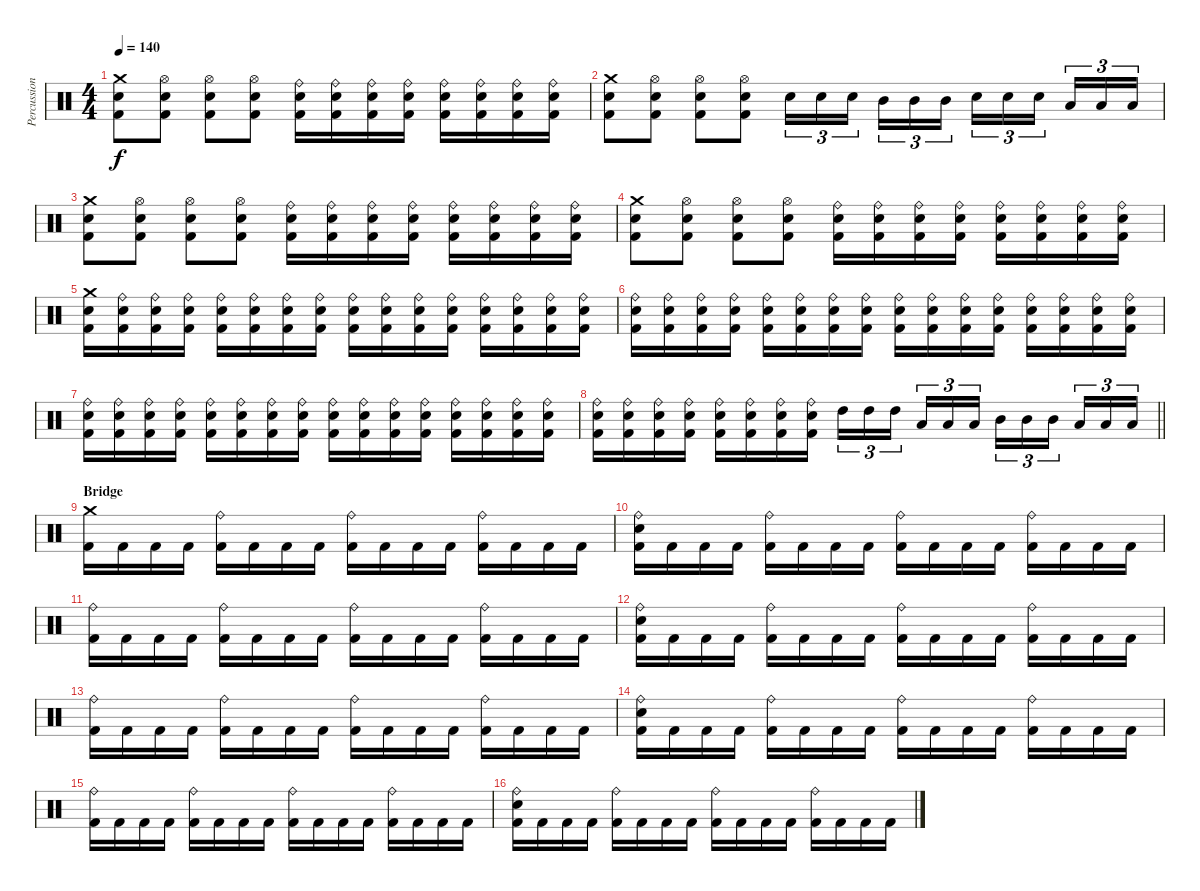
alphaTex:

\track ("Percussion" "Percussion") {instrument percussion}
\staff {score}
\articulation defaults
\ts (4 4)
\tempo 140
\clef neutral
\ks c
("Crash medium (hit)" "Electric Snare (hit)" "Kick (hit) 2").8{dy f} ("Hi-Hat (open)" "Electric Snare (hit)" "Kick (hit) 2").8 ("Hi-Hat (open)" "Electric Snare (hit)" "Kick (hit) 2").8 ("Hi-Hat (open)" "Electric Snare (hit)" "Kick (hit) 2").8 ("Ride (bell)" "Electric Snare (hit)" "Kick (hit) 2").16 ("Ride (bell)" "Electric Snare (hit)" "Kick (hit) 2").16 ("Ride (bell)" "Electric Snare (hit)" "Kick (hit) 2").16 ("Ride (bell)" "Electric Snare (hit)" "Kick (hit) 2").16 ("Ride (bell)" "Electric Snare (hit)" "Kick (hit) 2").16 ("Ride (bell)" "Electric Snare (hit)" "Kick (hit) 2").16 ("Ride (bell)" "Electric Snare (hit)" "Kick (hit) 2").16 ("Ride (bell)" "Electric Snare (hit)" "Kick (hit) 2").16 |
("Crash medium (hit)" "Electric Snare (hit)" "Kick (hit) 2").8 ("Hi-Hat (open)" "Electric Snare (hit)" "Kick (hit) 2").8 ("Hi-Hat (open)" "Electric Snare (hit)" "Kick (hit) 2").8 ("Hi-Hat (open)" "Electric Snare (hit)" "Kick (hit) 2").8 "Electric Snare (hit)".16{tu (3 2)} "Electric Snare (hit)".16{tu (3 2)} "Electric Snare (hit)".16{tu (3 2) beam splitsecondary} "Mid Tom (hit)".16{tu (3 2)} "Mid Tom (hit)".16{tu (3 2)} "Mid Tom (hit)".16{tu (3 2)} "Electric Snare (hit)".16{tu (3 2)} "Electric Snare (hit)".16{tu (3 2)} "Electric Snare (hit)".16{tu (3 2) beam splitsecondary} "Low Tom (hit)".16{tu (3 2)} "Low Tom (hit)".16{tu (3 2)} "Low Tom (hit)".16{tu (3 2)} |
("Crash medium (hit)" "Electric Snare (hit)" "Kick (hit) 2").8 ("Hi-Hat (open)" "Electric Snare (hit)" "Kick (hit) 2").8 ("Hi-Hat (open)" "Electric Snare (hit)" "Kick (hit) 2").8 ("Hi-Hat (open)" "Electric Snare (hit)" "Kick (hit) 2").8 ("Ride (bell)" "Electric Snare (hit)" "Kick (hit) 2").16 ("Ride (bell)" "Electric Snare (hit)" "Kick (hit) 2").16 ("Ride (bell)" "Electric Snare (hit)" "Kick (hit) 2").16 ("Ride (bell)" "Electric Snare (hit)" "Kick (hit) 2").16 ("Ride (bell)" "Electric Snare (hit)" "Kick (hit) 2").16 ("Ride (bell)" "Electric Snare (hit)" "Kick (hit) 2").16 ("Ride (bell)" "Electric Snare (hit)" "Kick (hit) 2").16 ("Ride (bell)" "Electric Snare (hit)" "Kick (hit) 2").16 |
("Crash medium (hit)" "Electric Snare (hit)" "Kick (hit) 2").8 ("Hi-Hat (open)" "Electric Snare (hit)" "Kick (hit) 2").8 ("Hi-Hat (open)" "Electric Snare (hit)" "Kick (hit) 2").8 ("Hi-Hat (open)" "Electric Snare (hit)" "Kick (hit) 2").8 ("Ride (bell)" "Electric Snare (hit)" "Kick (hit) 2").16 ("Ride (bell)" "Electric Snare (hit)" "Kick (hit) 2").16 ("Ride (bell)" "Electric Snare (hit)" "Kick (hit) 2").16 ("Ride (bell)" "Electric Snare (hit)" "Kick (hit) 2").16 ("Ride (bell)" "Electric Snare (hit)" "Kick (hit) 2").16 ("Ride (bell)" "Electric Snare (hit)" "Kick (hit) 2").16 ("Ride (bell)" "Electric Snare (hit)" "Kick (hit) 2").16 ("Ride (bell)" "Electric Snare (hit)" "Kick (hit) 2").16 |
("Crash medium (hit)" "Electric Snare (hit)" "Kick (hit) 2").16 ("Ride (bell)" "Electric Snare (hit)" "Kick (hit) 2").16 ("Ride (bell)" "Electric Snare (hit)" "Kick (hit) 2").16 ("Ride (bell)" "Electric Snare (hit)" "Kick (hit) 2").16 ("Ride (bell)" "Electric Snare (hit)" "Kick (hit) 2").16 ("Ride (bell)" "Electric Snare (hit)" "Kick (hit) 2").16 ("Ride (bell)" "Electric Snare (hit)" "Kick (hit) 2").16 ("Ride (bell)" "Electric Snare (hit)" "Kick (hit) 2").16 ("Ride (bell)" "Electric Snare (hit)" "Kick (hit) 2").16 ("Ride (bell)" "Electric Snare (hit)" "Kick (hit) 2").16 ("Ride (bell)" "Electric Snare (hit)" "Kick (hit) 2").16 ("Ride (bell)" "Electric Snare (hit)" "Kick (hit) 2").16 ("Ride (bell)" "Electric Snare (hit)" "Kick (hit) 2").16 ("Ride (bell)" "Electric Snare (hit)" "Kick (hit) 2").16 ("Ride (bell)" "Electric Snare (hit)" "Kick (hit) 2").16 ("Ride (bell)" "Electric Snare (hit)" "Kick (hit) 2").16 |
("Ride (bell)" "Electric Snare (hit)" "Kick (hit) 2").16 ("Ride (bell)" "Electric Snare (hit)" "Kick (hit) 2").16 ("Ride (bell)" "Electric Snare (hit)" "Kick (hit) 2").16 ("Ride (bell)" "Electric Snare (hit)" "Kick (hit) 2").16 ("Ride (bell)" "Electric Snare (hit)" "Kick (hit) 2").16 ("Ride (bell)" "Electric Snare (hit)" "Kick (hit) 2").16 ("Ride (bell)" "Electric Snare (hit)" "Kick (hit) 2").16 ("Ride (bell)" "Electric Snare (hit)" "Kick (hit) 2").16 ("Ride (bell)" "Electric Snare (hit)" "Kick (hit) 2").16 ("Ride (bell)" "Electric Snare (hit)" "Kick (hit) 2").16 ("Ride (bell)" "Electric Snare (hit)" "Kick (hit) 2").16 ("Ride (bell)" "Electric Snare (hit)" "Kick (hit) 2").16 ("Ride (bell)" "Electric Snare (hit)" "Kick (hit) 2").16 ("Ride (bell)" "Electric Snare (hit)" "Kick (hit) 2").16 ("Ride (bell)" "Electric Snare (hit)" "Kick (hit) 2").16 ("Ride (bell)" "Electric Snare (hit)" "Kick (hit) 2").16 |
("Ride (bell)" "Electric Snare (hit)" "Kick (hit) 2").16 ("Ride (bell)" "Electric Snare (hit)" "Kick (hit) 2").16 ("Ride (bell)" "Electric Snare (hit)" "Kick (hit) 2").16 ("Ride (bell)" "Electric Snare (hit)" "Kick (hit) 2").16 ("Ride (bell)" "Electric Snare (hit)" "Kick (hit) 2").16 ("Ride (bell)" "Electric Snare (hit)" "Kick (hit) 2").16 ("Ride (bell)" "Electric Snare (hit)" "Kick (hit) 2").16 ("Ride (bell)" "Electric Snare (hit)" "Kick (hit) 2").16 ("Ride (bell)" "Electric Snare (hit)" "Kick (hit) 2").16 ("Ride (bell)" "Electric Snare (hit)" "Kick (hit) 2").16 ("Ride (bell)" "Electric Snare (hit)" "Kick (hit) 2").16 ("Ride (bell)" "Electric Snare (hit)" "Kick (hit) 2").16 ("Ride (bell)" "Electric Snare (hit)" "Kick (hit) 2").16 ("Ride (bell)" "Electric Snare (hit)" "Kick (hit) 2").16 ("Ride (bell)" "Electric Snare (hit)" "Kick (hit) 2").16 ("Ride (bell)" "Electric Snare (hit)" "Kick (hit) 2").16 |
\barLineRight lightlight
("Ride (bell)" "Electric Snare (hit)" "Kick (hit) 2").16 ("Ride (bell)" "Electric Snare (hit)" "Kick (hit) 2").16 ("Ride (bell)" "Electric Snare (hit)" "Kick (hit) 2").16 ("Ride (bell)" "Electric Snare (hit)" "Kick (hit) 2").16 ("Ride (bell)" "Electric Snare (hit)" "Kick (hit) 2").16 ("Ride (bell)" "Electric Snare (hit)" "Kick (hit) 2").16 ("Ride (bell)" "Electric Snare (hit)" "Kick (hit) 2").16 ("Ride (bell)" "Electric Snare (hit)" "Kick (hit) 2").16 "High Tom (hit)".16{tu (3 2)} "High Tom (hit)".16{tu (3 2)} "High Tom (hit)".16{tu (3 2) beam splitsecondary} "Low Tom (hit)".16{tu (3 2)} "Low Tom (hit)".16{tu (3 2)} "Low Tom (hit)".16{tu (3 2)} "Mid Tom (hit)".16{tu (3 2)} "Mid Tom (hit)".16{tu (3 2)} "Mid Tom (hit)".16{tu (3 2) beam splitsecondary} "Low Floor Tom (hit)".16{tu (3 2)} "Low Floor Tom (hit)".16{tu (3 2)} "Low Floor Tom (hit)".16{tu (3 2)} |
\section ("" "Bridge")
("Crash medium (hit)" "Kick (hit) 2").16 "Kick (hit) 2".16 "Kick (hit) 2".16 "Kick (hit) 2".16 ("Ride (bell)" "Kick (hit) 2").16 "Kick (hit) 2".16 "Kick (hit) 2".16 "Kick (hit) 2".16 ("Ride (bell)" "Kick (hit) 2").16 "Kick (hit) 2".16 "Kick (hit) 2".16 "Kick (hit) 2".16 ("Ride (bell)" "Kick (hit) 2").16 "Kick (hit) 2".16 "Kick (hit) 2".16 "Kick (hit) 2".16 |
("Ride (bell)" "Electric Snare (hit)" "Kick (hit) 2").16 "Kick (hit) 2".16 "Kick (hit) 2".16 "Kick (hit) 2".16 ("Ride (bell)" "Kick (hit) 2").16 "Kick (hit) 2".16 "Kick (hit) 2".16 "Kick (hit) 2".16 ("Ride (bell)" "Kick (hit) 2").16 "Kick (hit) 2".16 "Kick (hit) 2".16 "Kick (hit) 2".16 ("Ride (bell)" "Kick (hit) 2").16 "Kick (hit) 2".16 "Kick (hit) 2".16 "Kick (hit) 2".16 |
("Ride (bell)" "Kick (hit) 2").16 "Kick (hit) 2".16 "Kick (hit) 2".16 "Kick (hit) 2".16 ("Ride (bell)" "Kick (hit) 2").16 "Kick (hit) 2".16 "Kick (hit) 2".16 "Kick (hit) 2".16 ("Ride (bell)" "Kick (hit) 2").16 "Kick (hit) 2".16 "Kick (hit) 2".16 "Kick (hit) 2".16 ("Ride (bell)" "Kick (hit) 2").16 "Kick (hit) 2".16 "Kick (hit) 2".16 "Kick (hit) 2".16 |
("Ride (bell)" "Electric Snare (hit)" "Kick (hit) 2").16 "Kick (hit) 2".16 "Kick (hit) 2".16 "Kick (hit) 2".16 ("Ride (bell)" "Kick (hit) 2").16 "Kick (hit) 2".16 "Kick (hit) 2".16 "Kick (hit) 2".16 ("Ride (bell)" "Kick (hit) 2").16 "Kick (hit) 2".16 "Kick (hit) 2".16 "Kick (hit) 2".16 ("Ride (bell)" "Kick (hit) 2").16 "Kick (hit) 2".16 "Kick (hit) 2".16 "Kick (hit) 2".16 |
("Ride (bell)" "Kick (hit) 2").16 "Kick (hit) 2".16 "Kick (hit) 2".16 "Kick (hit) 2".16 ("Ride (bell)" "Kick (hit) 2").16 "Kick (hit) 2".16 "Kick (hit) 2".16 "Kick (hit) 2".16 ("Ride (bell)" "Kick (hit) 2").16 "Kick (hit) 2".16 "Kick (hit) 2".16 "Kick (hit) 2".16 ("Ride (bell)" "Kick (hit) 2").16 "Kick (hit) 2".16 "Kick (hit) 2".16 "Kick (hit) 2".16 |
("Ride (bell)" "Electric Snare (hit)" "Kick (hit) 2").16 "Kick (hit) 2".16 "Kick (hit) 2".16 "Kick (hit) 2".16 ("Ride (bell)" "Kick (hit) 2").16 "Kick (hit) 2".16 "Kick (hit) 2".16 "Kick (hit) 2".16 ("Ride (bell)" "Kick (hit) 2").16 "Kick (hit) 2".16 "Kick (hit) 2".16 "Kick (hit) 2".16 ("Ride (bell)" "Kick (hit) 2").16 "Kick (hit) 2".16 "Kick (hit) 2".16 "Kick (hit) 2".16 |
("Ride (bell)" "Kick (hit) 2").16 "Kick (hit) 2".16 "Kick (hit) 2".16 "Kick (hit) 2".16 ("Ride (bell)" "Kick (hit) 2").16 "Kick (hit) 2".16 "Kick (hit) 2".16 "Kick (hit) 2".16 ("Ride (bell)" "Kick (hit) 2").16 "Kick (hit) 2".16 "Kick (hit) 2".16 "Kick (hit) 2".16 ("Ride (bell)" "Kick (hit) 2").16 "Kick (hit) 2".16 "Kick (hit) 2".16 "Kick (hit) 2".16 |
("Ride (bell)" "Electric Snare (hit)" "Kick (hit) 2").16 "Kick (hit) 2".16 "Kick (hit) 2".16 "Kick (hit) 2".16 ("Ride (bell)" "Kick (hit) 2").16 "Kick (hit) 2".16 "Kick (hit) 2".16 "Kick (hit) 2".16 ("Ride (bell)" "Kick (hit) 2").16 "Kick (hit) 2".16 "Kick (hit) 2".16 "Kick (hit) 2".16 ("Ride (bell)" "Kick (hit) 2").16 "Kick (hit) 2".16 "Kick (hit) 2".16 "Kick (hit) 2".16
